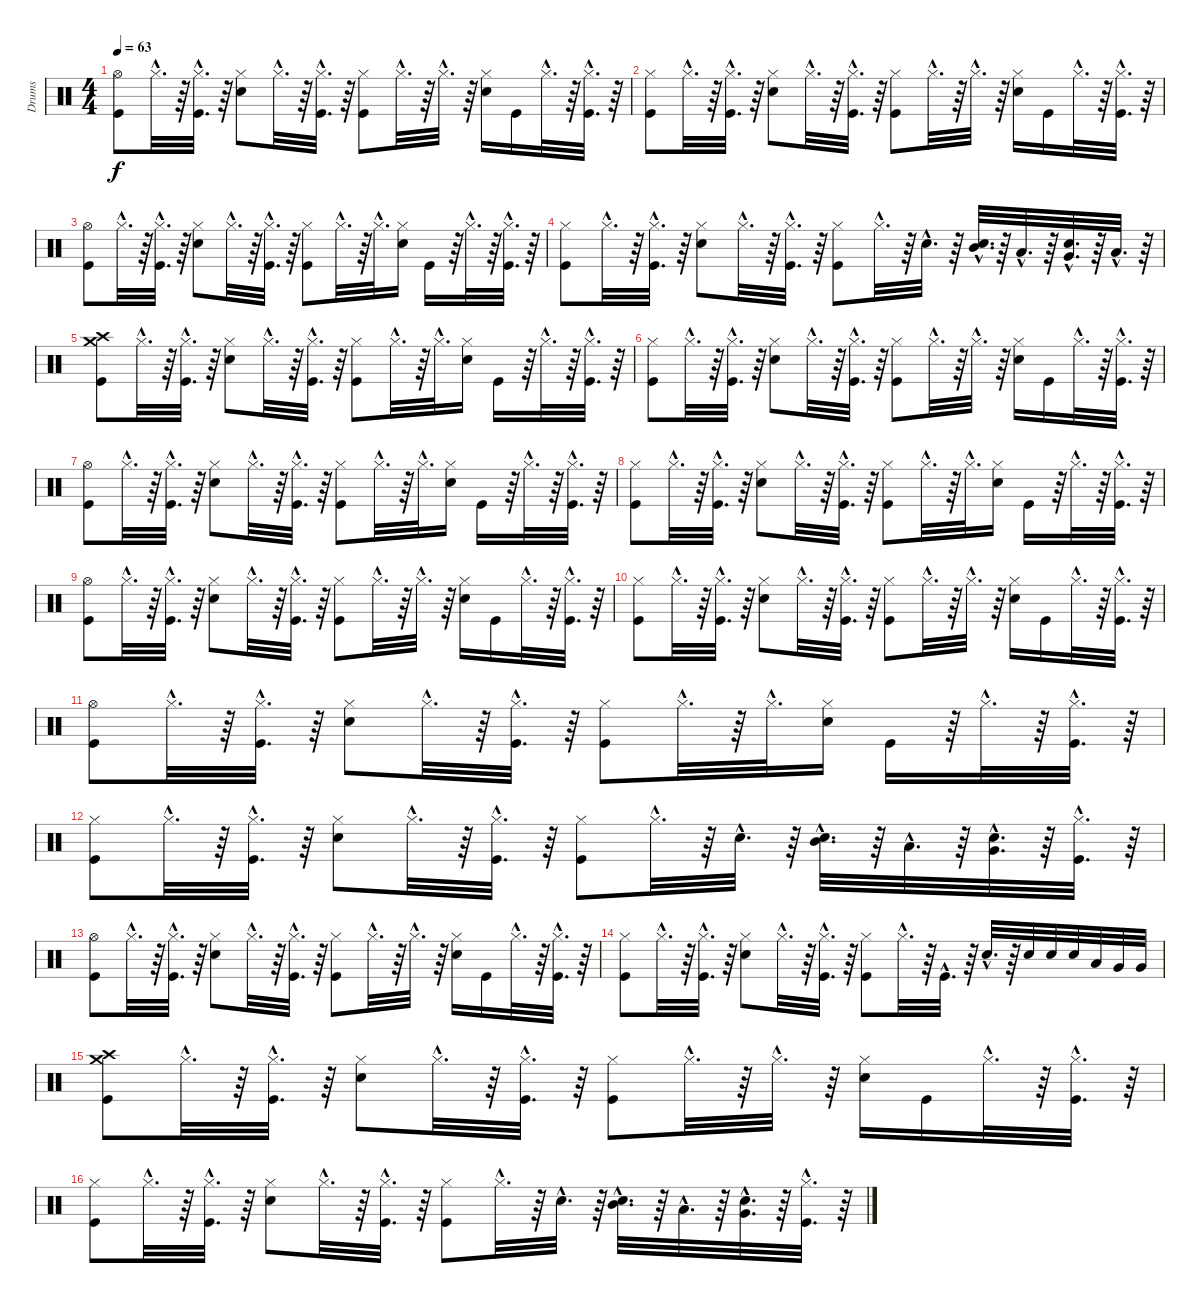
\track ("Drums" "Drums") {instrument percussion}
\staff {score}
\articulation defaults
\ts (4 4)
\tempo 63
\clef neutral
\ks c
("Hi-Hat (open)" "Kick (hit)").8{dy f} "Hi-Hat (closed)"{hac}.32{d} r.64 ("Hi-Hat (closed)"{hac} "Kick (hit)"{hac}).32{d} r.64 ("Hi-Hat (closed)" "Electric Snare (hit)").8 "Hi-Hat (closed)"{hac}.32{d} r.64 ("Hi-Hat (closed)"{hac} "Kick (hit)"{hac}).32{d} r.64 ("Hi-Hat (closed)" "Kick (hit)").8 "Hi-Hat (closed)"{hac}.32{d} r.64 "Hi-Hat (closed)"{hac}.32{d} r.64 ("Hi-Hat (closed)" "Electric Snare (hit)").16 "Kick (hit)".16 "Hi-Hat (closed)"{hac}.32{d} r.64 ("Hi-Hat (closed)"{hac} "Kick (hit)"{hac}).32{d} r.64 |
("Hi-Hat (closed)" "Kick (hit)").8 "Hi-Hat (closed)"{hac}.32{d} r.64 ("Hi-Hat (closed)"{hac} "Kick (hit)"{hac}).32{d} r.64 ("Hi-Hat (closed)" "Electric Snare (hit)").8 "Hi-Hat (closed)"{hac}.32{d} r.64 ("Hi-Hat (closed)"{hac} "Kick (hit)"{hac}).32{d} r.64 ("Hi-Hat (closed)" "Kick (hit)").8 "Hi-Hat (closed)"{hac}.32{d} r.64 "Hi-Hat (closed)"{hac}.32{d} r.64 ("Hi-Hat (closed)" "Electric Snare (hit)").16 "Kick (hit)".16 "Hi-Hat (closed)"{hac}.32{d} r.64 ("Hi-Hat (closed)"{hac} "Kick (hit)"{hac}).32{d} r.64 |
("Kick (hit)" "Hi-Hat (open)").8 "Hi-Hat (closed)"{hac}.32{d} r.64 ("Kick (hit)"{hac} "Hi-Hat (closed)"{hac}).32{d} r.64 ("Electric Snare (hit)" "Hi-Hat (closed)").8 "Hi-Hat (closed)"{hac}.32{d} r.64 ("Kick (hit)"{hac} "Hi-Hat (closed)"{hac}).32{d} r.64 ("Kick (hit)" "Hi-Hat (closed)").8 "Hi-Hat (closed)"{hac}.32{d} r.64 "Hi-Hat (closed)"{hac}.32{d} ("Electric Snare (hit)" "Hi-Hat (closed)").16 "Kick (hit)".16 r.64 "Hi-Hat (closed)"{hac}.32{d} r.64 ("Kick (hit)"{hac} "Hi-Hat (closed)"{hac}).32{d} r.64 |
("Kick (hit)" "Hi-Hat (closed)").8 "Hi-Hat (closed)"{hac}.32{d} r.64 ("Kick (hit)"{hac} "Hi-Hat (closed)"{hac}).32{d} r.64 ("Electric Snare (hit)" "Hi-Hat (closed)").8 "Hi-Hat (closed)"{hac}.32{d} r.64 ("Kick (hit)"{hac} "Hi-Hat (closed)"{hac}).32{d} r.64 ("Kick (hit)" "Hi-Hat (closed)").8 "Hi-Hat (closed)"{hac}.32{d} r.64 "Electric Snare (hit)"{hac}.32{d} r.64 ("Mid Tom (hit)"{hac} "Electric Snare (hit)"{hac}).32{d} r.64 "Low Tom (hit)"{hac}.32{d} r.64 ("Very Low Tom (hit)"{hac} "Electric Snare (hit)"{hac}).32{d} r.64 "Low Floor Tom (hit)"{hac}.32{d} r.64 |
("Kick (hit)" "Crash medium (hit)" "Crash high (hit)").8 "Hi-Hat (closed)"{hac}.32{d} r.64 ("Kick (hit)"{hac} "Hi-Hat (closed)"{hac}).32{d} r.64 ("Electric Snare (hit)" "Hi-Hat (closed)").8 "Hi-Hat (closed)"{hac}.32{d} r.64 ("Kick (hit)"{hac} "Hi-Hat (closed)"{hac}).32{d} r.64 ("Kick (hit)" "Hi-Hat (closed)").8 "Hi-Hat (closed)"{hac}.32{d} r.64 "Hi-Hat (closed)"{hac}.32{d} ("Electric Snare (hit)" "Hi-Hat (closed)").16 "Kick (hit)".16 r.64 "Hi-Hat (closed)"{hac}.32{d} r.64 ("Kick (hit)"{hac} "Hi-Hat (closed)"{hac}).32{d} r.64 |
("Hi-Hat (closed)" "Kick (hit)").8 "Hi-Hat (closed)"{hac}.32{d} r.64 ("Hi-Hat (closed)"{hac} "Kick (hit)"{hac}).32{d} r.64 ("Hi-Hat (closed)" "Electric Snare (hit)").8 "Hi-Hat (closed)"{hac}.32{d} r.64 ("Hi-Hat (closed)"{hac} "Kick (hit)"{hac}).32{d} r.64 ("Hi-Hat (closed)" "Kick (hit)").8 "Hi-Hat (closed)"{hac}.32{d} r.64 "Hi-Hat (closed)"{hac}.32{d} r.64 ("Hi-Hat (closed)" "Electric Snare (hit)").16 "Kick (hit)".16 "Hi-Hat (closed)"{hac}.32{d} r.64 ("Hi-Hat (closed)"{hac} "Kick (hit)"{hac}).32{d} r.64 |
("Kick (hit)" "Hi-Hat (open)").8 "Hi-Hat (closed)"{hac}.32{d} r.64 ("Kick (hit)"{hac} "Hi-Hat (closed)"{hac}).32{d} r.64 ("Electric Snare (hit)" "Hi-Hat (closed)").8 "Hi-Hat (closed)"{hac}.32{d} r.64 ("Kick (hit)"{hac} "Hi-Hat (closed)"{hac}).32{d} r.64 ("Kick (hit)" "Hi-Hat (closed)").8 "Hi-Hat (closed)"{hac}.32{d} r.64 "Hi-Hat (closed)"{hac}.32{d} ("Electric Snare (hit)" "Hi-Hat (closed)").16 "Kick (hit)".16 r.64 "Hi-Hat (closed)"{hac}.32{d} r.64 ("Kick (hit)"{hac} "Hi-Hat (closed)"{hac}).32{d} r.64 |
("Kick (hit)" "Hi-Hat (closed)").8 "Hi-Hat (closed)"{hac}.32{d} r.64 ("Kick (hit)"{hac} "Hi-Hat (closed)"{hac}).32{d} r.64 ("Electric Snare (hit)" "Hi-Hat (closed)").8 "Hi-Hat (closed)"{hac}.32{d} r.64 ("Kick (hit)"{hac} "Hi-Hat (closed)"{hac}).32{d} r.64 ("Kick (hit)" "Hi-Hat (closed)").8 "Hi-Hat (closed)"{hac}.32{d} r.64 "Hi-Hat (closed)"{hac}.32{d} ("Electric Snare (hit)" "Hi-Hat (closed)").16 "Kick (hit)".16 r.64 "Hi-Hat (closed)"{hac}.32{d} r.64 ("Kick (hit)"{hac} "Hi-Hat (closed)"{hac}).32{d} r.64 |
("Hi-Hat (open)" "Kick (hit)").8 "Hi-Hat (closed)"{hac}.32{d} r.64 ("Hi-Hat (closed)"{hac} "Kick (hit)"{hac}).32{d} r.64 ("Hi-Hat (closed)" "Electric Snare (hit)").8 "Hi-Hat (closed)"{hac}.32{d} r.64 ("Hi-Hat (closed)"{hac} "Kick (hit)"{hac}).32{d} r.64 ("Hi-Hat (closed)" "Kick (hit)").8 "Hi-Hat (closed)"{hac}.32{d} r.64 "Hi-Hat (closed)"{hac}.32{d} r.64 ("Hi-Hat (closed)" "Electric Snare (hit)").16 "Kick (hit)".16 "Hi-Hat (closed)"{hac}.32{d} r.64 ("Hi-Hat (closed)"{hac} "Kick (hit)"{hac}).32{d} r.64 |
("Hi-Hat (closed)" "Kick (hit)").8 "Hi-Hat (closed)"{hac}.32{d} r.64 ("Hi-Hat (closed)"{hac} "Kick (hit)"{hac}).32{d} r.64 ("Hi-Hat (closed)" "Electric Snare (hit)").8 "Hi-Hat (closed)"{hac}.32{d} r.64 ("Hi-Hat (closed)"{hac} "Kick (hit)"{hac}).32{d} r.64 ("Hi-Hat (closed)" "Kick (hit)").8 "Hi-Hat (closed)"{hac}.32{d} r.64 "Hi-Hat (closed)"{hac}.32{d} r.64 ("Hi-Hat (closed)" "Electric Snare (hit)").16 "Kick (hit)".16 "Hi-Hat (closed)"{hac}.32{d} r.64 ("Hi-Hat (closed)"{hac} "Kick (hit)"{hac}).32{d} r.64 |
("Kick (hit)" "Hi-Hat (open)").8 "Hi-Hat (closed)"{hac}.32{d} r.64 ("Kick (hit)"{hac} "Hi-Hat (closed)"{hac}).32{d} r.64 ("Electric Snare (hit)" "Hi-Hat (closed)").8 "Hi-Hat (closed)"{hac}.32{d} r.64 ("Kick (hit)"{hac} "Hi-Hat (closed)"{hac}).32{d} r.64 ("Kick (hit)" "Hi-Hat (closed)").8 "Hi-Hat (closed)"{hac}.32{d} r.64 "Hi-Hat (closed)"{hac}.32{d} ("Electric Snare (hit)" "Hi-Hat (closed)").16 "Kick (hit)".16 r.64 "Hi-Hat (closed)"{hac}.32{d} r.64 ("Kick (hit)"{hac} "Hi-Hat (closed)"{hac}).32{d} r.64 |
("Kick (hit)" "Hi-Hat (closed)").8 "Hi-Hat (closed)"{hac}.32{d} r.64 ("Kick (hit)"{hac} "Hi-Hat (closed)"{hac}).32{d} r.64 ("Electric Snare (hit)" "Hi-Hat (closed)").8 "Hi-Hat (closed)"{hac}.32{d} r.64 ("Kick (hit)"{hac} "Hi-Hat (closed)"{hac}).32{d} r.64 ("Kick (hit)" "Hi-Hat (closed)").8 "Hi-Hat (closed)"{hac}.32{d} r.64 "Electric Snare (hit)"{hac}.32{d} r.64 ("Mid Tom (hit)"{hac} "Electric Snare (hit)"{hac}).32{d} r.64 "Low Tom (hit)"{hac}.32{d} r.64 ("Very Low Tom (hit)"{hac} "Electric Snare (hit)"{hac}).32{d} r.64 ("Kick (hit)"{hac} "Hi-Hat (closed)"{hac}).32{d} r.64 |
("Hi-Hat (open)" "Kick (hit)").8 "Hi-Hat (closed)"{hac}.32{d} r.64 ("Hi-Hat (closed)"{hac} "Kick (hit)"{hac}).32{d} r.64 ("Hi-Hat (closed)" "Electric Snare (hit)").8 "Hi-Hat (closed)"{hac}.32{d} r.64 ("Hi-Hat (closed)"{hac} "Kick (hit)"{hac}).32{d} r.64 ("Hi-Hat (closed)" "Kick (hit)").8 "Hi-Hat (closed)"{hac}.32{d} r.64 "Hi-Hat (closed)"{hac}.32{d} r.64 ("Hi-Hat (closed)" "Electric Snare (hit)").16 "Kick (hit)".16 "Hi-Hat (closed)"{hac}.32{d} r.64 ("Hi-Hat (closed)"{hac} "Kick (hit)"{hac}).32{d} r.64 |
("Hi-Hat (closed)" "Kick (hit)").8 "Hi-Hat (closed)"{hac}.32{d} r.64 ("Hi-Hat (closed)"{hac} "Kick (hit)"{hac}).32{d} r.64 ("Hi-Hat (closed)" "Electric Snare (hit)").8 "Hi-Hat (closed)"{hac}.32{d} r.64 ("Hi-Hat (closed)"{hac} "Kick (hit)"{hac}).32{d} r.64 ("Hi-Hat (closed)" "Kick (hit)").8 "Hi-Hat (closed)"{hac}.32{d} r.64 "Kick (hit)"{hac}.32{d} r.64 "Electric Snare (hit)"{hac}.32{d} r.64 "Electric Snare (hit)".32 "Electric Snare (hit)".32 "Electric Snare (hit)".32 "Low Tom (hit)".32 "Very Low Tom (hit)".32 "Very Low Tom (hit)".32 |
("Crash high (hit)" "Crash medium (hit)" "Kick (hit)").8 "Hi-Hat (closed)"{hac}.32{d} r.64 ("Hi-Hat (closed)"{hac} "Kick (hit)"{hac}).32{d} r.64 ("Hi-Hat (closed)" "Electric Snare (hit)").8 "Hi-Hat (closed)"{hac}.32{d} r.64 ("Hi-Hat (closed)"{hac} "Kick (hit)"{hac}).32{d} r.64 ("Hi-Hat (closed)" "Kick (hit)").8 "Hi-Hat (closed)"{hac}.32{d} r.64 "Hi-Hat (closed)"{hac}.32{d} r.64 ("Hi-Hat (closed)" "Electric Snare (hit)").16 "Kick (hit)".16 "Hi-Hat (closed)"{hac}.32{d} r.64 ("Hi-Hat (closed)"{hac} "Kick (hit)"{hac}).32{d} r.64 |
("Kick (hit)" "Hi-Hat (closed)").8 "Hi-Hat (closed)"{hac}.32{d} r.64 ("Kick (hit)"{hac} "Hi-Hat (closed)"{hac}).32{d} r.64 ("Electric Snare (hit)" "Hi-Hat (closed)").8 "Hi-Hat (closed)"{hac}.32{d} r.64 ("Kick (hit)"{hac} "Hi-Hat (closed)"{hac}).32{d} r.64 ("Kick (hit)" "Hi-Hat (closed)").8 "Hi-Hat (closed)"{hac}.32{d} r.64 "Electric Snare (hit)"{hac}.32{d} r.64 ("Mid Tom (hit)"{hac} "Electric Snare (hit)"{hac}).32{d} r.64 "Low Tom (hit)"{hac}.32{d} r.64 ("Very Low Tom (hit)"{hac} "Electric Snare (hit)"{hac}).32{d} r.64 ("Kick (hit)"{hac} "Hi-Hat (closed)"{hac}).32{d} r.64
